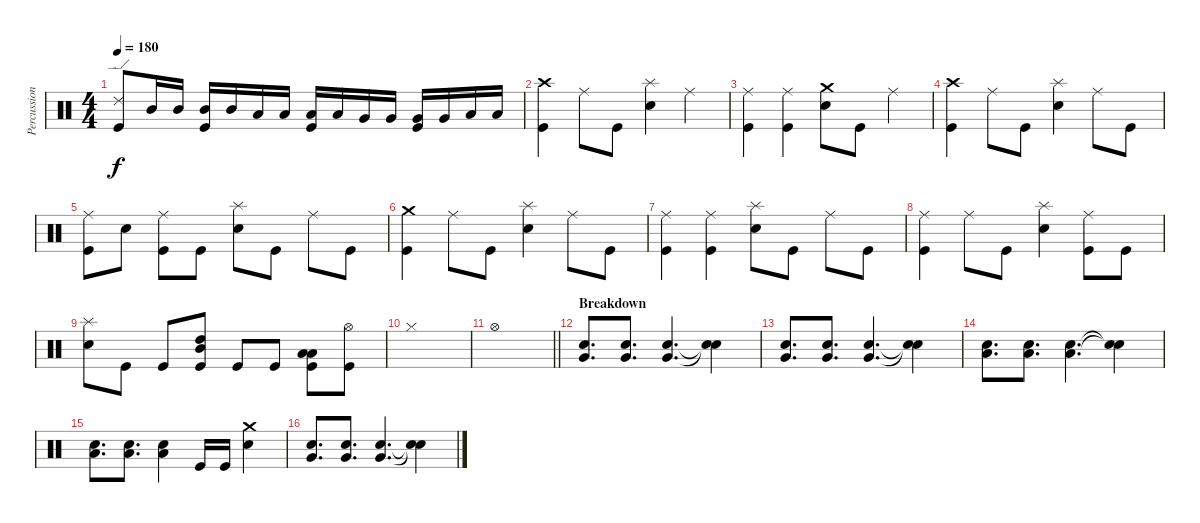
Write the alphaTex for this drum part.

\track ("Percussion" "Percussion") {instrument percussion}
\staff {score}
\articulation defaults
\ts (4 4)
\tempo 180
\clef neutral
\ks c
("Ride (edge) 2" "Kick (hit)").8{dy f} "Mid Tom (hit)".16 "Mid Tom (hit)".16 ("Mid Tom (hit)" "Kick (hit)").16 "Mid Tom (hit)".16 "Low Tom (hit)".16 "Low Tom (hit)".16 ("Low Tom (hit)" "Kick (hit)").16 "Low Tom (hit)".16 "Very Low Tom (hit)".16 "Very Low Tom (hit)".16 ("Very Low Tom (hit)" "Kick (hit)").16 "Very Low Tom (hit)".16 "Low Floor Tom (hit)".16 "Low Floor Tom (hit)".16 |
("Crash high (hit)" "Kick (hit)").4 "Ride (middle)".8 "Kick (hit)".8 ("Splash (hit)" "Electric Snare (hit)").4 "Ride (middle)".4 |
("Ride (middle)" "Kick (hit)").4 ("Ride (middle)" "Kick (hit)").4 ("Crash medium (hit)" "Electric Snare (hit)").8 "Kick (hit)".8 "Ride (middle)".4 |
("Crash high (hit)" "Kick (hit)").4 "Ride (middle)".8 "Kick (hit)".8 ("Splash (hit)" "Electric Snare (hit)").4 "Ride (middle)".8 "Kick (hit)".8 |
("Ride (middle)" "Kick (hit)").8 "Electric Snare (hit)".8 ("Ride (middle)" "Kick (hit)").8 "Kick (hit)".8 ("Splash (hit)" "Electric Snare (hit)").8 "Kick (hit)".8 "Ride (middle)".8 "Kick (hit)".8 |
("Crash medium (hit)" "Kick (hit)").4 "Ride (middle)".8 "Kick (hit)".8 ("Splash (hit)" "Electric Snare (hit)").4 "Ride (middle)".8 "Kick (hit)".8 |
("Ride (middle)" "Kick (hit)").4 ("Ride (middle)" "Kick (hit)").4 ("Splash (hit)" "Electric Snare (hit)").8 "Kick (hit)".8 "Ride (middle)".8 "Kick (hit)".8 |
("Ride (middle)" "Kick (hit)").4 "Ride (middle)".8 "Kick (hit)".8 ("Splash (hit)" "Electric Snare (hit)").4 ("Ride (middle)" "Kick (hit)").8 "Kick (hit)".8 |
("Splash (hit)" "Electric Snare (hit)").8 "Kick (hit)".8 "Kick (hit)".8 ("High Tom (hit)" "Mid Tom (hit)" "Kick (hit)").8 "Kick (hit)".8 "Kick (hit)".8 ("Low Tom (hit)" "Low Floor Tom (hit)" "Kick (hit)").8 ("Hi-Hat (open)" "Kick (hit)").8 |
"Hi-Hat (closed)".1 |
\barLineRight lightlight "Hi-Hat (open)".1
|
\section ("" "Breakdown")
("Very Low Tom (hit)" "Electric Snare (hit)").8{d} ("Very Low Tom (hit)" "Electric Snare (hit)").8{d} ("Very Low Tom (hit)" "Electric Snare (hit)").4{d} ("Snare (hit)"{t} "Snare (hit)"{t}).4 |
("Very Low Tom (hit)" "Electric Snare (hit)").8{d} ("Very Low Tom (hit)" "Electric Snare (hit)").8{d} ("Very Low Tom (hit)" "Electric Snare (hit)").4{d} ("Snare (hit)"{t} "Snare (hit)"{t}).4 |
("Low Floor Tom (hit)" "Electric Snare (hit)").8{d} ("Low Floor Tom (hit)" "Electric Snare (hit)").8{d} ("Low Floor Tom (hit)" "Electric Snare (hit)").4{d} ("Snare (hit)"{t} "Snare (hit)"{t}).4 |
("Low Floor Tom (hit)" "Electric Snare (hit)").8{d} ("Low Floor Tom (hit)" "Electric Snare (hit)").8{d} ("Low Floor Tom (hit)" "Electric Snare (hit)").4 "Kick (hit)".16 "Kick (hit)".16 ("Crash medium (hit)" "Electric Snare (hit)").4 |
("Very Low Tom (hit)" "Electric Snare (hit)").8{d} ("Very Low Tom (hit)" "Electric Snare (hit)").8{d} ("Very Low Tom (hit)" "Electric Snare (hit)").4{d} ("Snare (hit)"{t} "Snare (hit)"{t}).4
